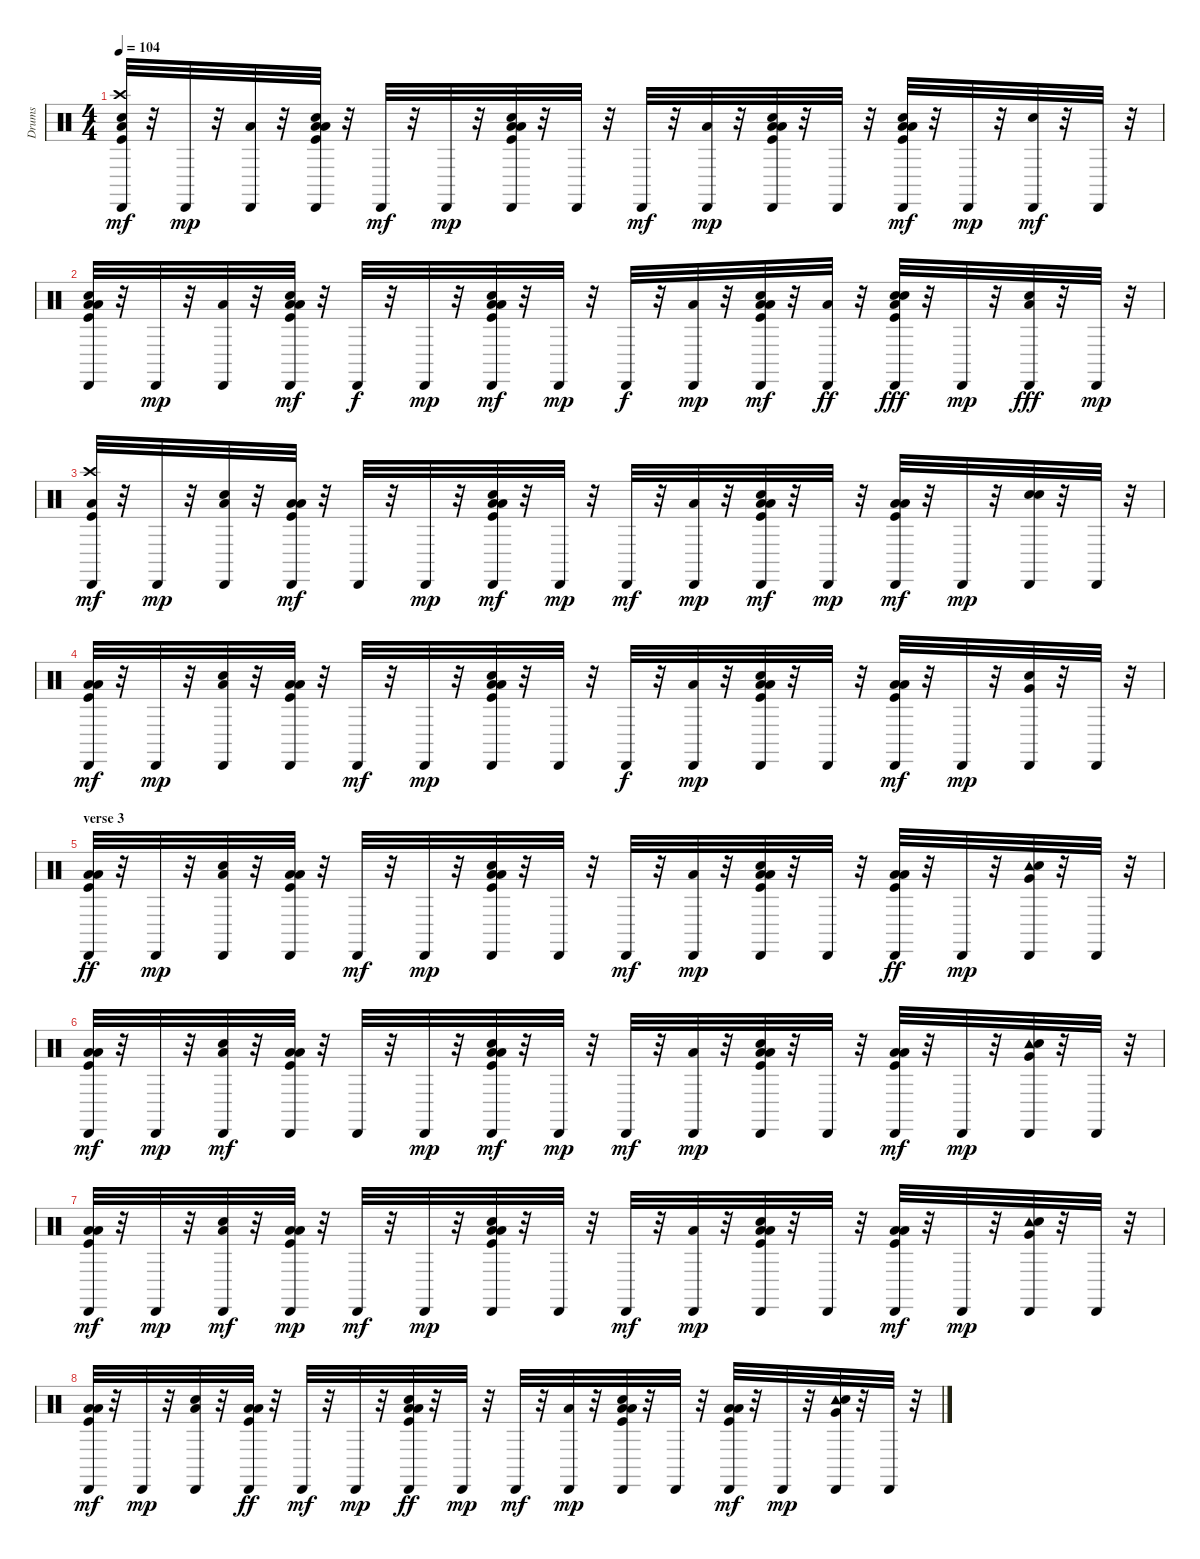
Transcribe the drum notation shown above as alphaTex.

\track ("Drums" "Drums") {instrument percussion}
\staff {score}
\articulation defaults
\ts (4 4)
\tempo 104
\clef neutral
\ks c
("Crash high (hit)" "Low Floor Tom (hit)" "Kick (hit)" "Hand Clap (hit)" "Cabasa (hit)").32{dy mf} r.32 "Cabasa (hit)".32{dy mp} r.32 ("Low Tom (hit)" "Cabasa (hit)").32 r.32 ("Low Tom (hit)" "Kick (hit)" "Cabasa (hit)" "Low Floor Tom (hit)" "Hand Clap (hit)").32 r.32 "Cabasa (hit)".32{dy mf} r.32 "Cabasa (hit)".32{dy mp} r.32 ("Low Tom (hit)" "Low Floor Tom (hit)" "Kick (hit)" "Hand Clap (hit)" "Cabasa (hit)").32 r.32 "Cabasa (hit)".32 r.32 "Cabasa (hit)".32{dy mf} r.32 ("Low Tom (hit)" "Cabasa (hit)").32{dy mp} r.32 ("Low Tom (hit)" "Low Floor Tom (hit)" "Kick (hit)" "Hand Clap (hit)" "Cabasa (hit)").32 r.32 "Cabasa (hit)".32 r.32 ("Low Tom (hit)" "Kick (hit)" "Hand Clap (hit)" "Low Floor Tom (hit)" "Cabasa (hit)").32{dy mf} r.32 "Cabasa (hit)".32{dy mp} r.32 ("Snare (hit) 2" "Cabasa (hit)").32{dy mf} r.32 "Cabasa (hit)".32 r.32 |
("Low Floor Tom (hit)" "Low Tom (hit)" "Kick (hit)" "Hand Clap (hit)" "Cabasa (hit)").32 r.32 "Cabasa (hit)".32{dy mp} r.32 ("Low Tom (hit)" "Cabasa (hit)").32 r.32 ("Low Tom (hit)" "Cabasa (hit)" "Low Floor Tom (hit)" "Kick (hit)" "Hand Clap (hit)").32{dy mf} r.32 "Cabasa (hit)".32{dy f} r.32 "Cabasa (hit)".32{dy mp} r.32 ("Low Tom (hit)" "Low Floor Tom (hit)" "Cabasa (hit)" "Kick (hit)" "Hand Clap (hit)").32{dy mf} r.32 "Cabasa (hit)".32{dy mp} r.32 "Cabasa (hit)".32{dy f} r.32 ("Cabasa (hit)" "Low Tom (hit)").32{dy mp} r.32 ("Cabasa (hit)" "Low Tom (hit)" "Low Floor Tom (hit)" "Kick (hit)" "Hand Clap (hit)").32{dy mf} r.32 ("Cabasa (hit)" "Low Tom (hit)").32{dy ff} r.32 ("Cabasa (hit)" "Kick (hit)" "Hand Clap (hit)" "Snare (hit) 2" "Low Floor Tom (hit)").32{dy fff} r.32 "Cabasa (hit)".32{dy mp} r.32 ("Cabasa (hit)" "Snare (hit) 2" "Low Floor Tom (hit)").32{dy fff} r.32 "Cabasa (hit)".32{dy mp} r.32 |
("Crash high (hit)" "Low Floor Tom (hit)" "Cabasa (hit)" "Kick (hit)").32{dy mf} r.32 "Cabasa (hit)".32{dy mp} r.32 ("Hand Clap (hit)" "Cabasa (hit)" "Low Tom (hit)").32 r.32 ("Cabasa (hit)" "Kick (hit)" "Low Floor Tom (hit)" "Low Tom (hit)").32{dy mf} r.32 "Cabasa (hit)".32 r.32 "Cabasa (hit)".32{dy mp} r.32 ("Cabasa (hit)" "Low Floor Tom (hit)" "Low Tom (hit)" "Kick (hit)" "Hand Clap (hit)").32{dy mf} r.32 "Cabasa (hit)".32{dy mp} r.32 "Cabasa (hit)".32{dy mf} r.32 ("Cabasa (hit)" "Low Tom (hit)").32{dy mp} r.32 ("Low Floor Tom (hit)" "Cabasa (hit)" "Low Tom (hit)" "Kick (hit)" "Hand Clap (hit)").32{dy mf} r.32 "Cabasa (hit)".32{dy mp} r.32 ("Low Floor Tom (hit)" "Low Tom (hit)" "Kick (hit)" "Cabasa (hit)").32{dy mf} r.32 "Cabasa (hit)".32{dy mp} r.32 ("Hand Clap (hit)" "Snare (hit) 2" "Cabasa (hit)").32 r.32 "Cabasa (hit)".32 r.32 |
("Low Tom (hit)" "Cabasa (hit)" "Low Floor Tom (hit)" "Kick (hit)").32{dy mf} r.32 "Cabasa (hit)".32{dy mp} r.32 ("Hand Clap (hit)" "Low Tom (hit)" "Cabasa (hit)").32 r.32 ("Low Tom (hit)" "Kick (hit)" "Low Floor Tom (hit)" "Cabasa (hit)").32 r.32 "Cabasa (hit)".32{dy mf} r.32 "Cabasa (hit)".32{dy mp} r.32 ("Hand Clap (hit)" "Low Tom (hit)" "Kick (hit)" "Low Floor Tom (hit)" "Cabasa (hit)").32 r.32 "Cabasa (hit)".32 r.32 "Cabasa (hit)".32{dy f} r.32 ("Low Tom (hit)" "Cabasa (hit)").32{dy mp} r.32 ("Low Tom (hit)" "Low Floor Tom (hit)" "Kick (hit)" "Hand Clap (hit)" "Cabasa (hit)").32 r.32 "Cabasa (hit)".32 r.32 ("Low Floor Tom (hit)" "Low Tom (hit)" "Kick (hit)" "Cabasa (hit)").32{dy mf} r.32 "Cabasa (hit)".32{dy mp} r.32 ("Very Low Tom (hit)" "Hand Clap (hit)" "Cabasa (hit)").32 r.32 "Cabasa (hit)".32 r.32 |
\section ("" "verse 3")
("Low Floor Tom (hit)" "Kick (hit)" "Cabasa (hit)" "Low Tom (hit)").32{dy ff} r.32 "Cabasa (hit)".32{dy mp} r.32 ("Low Tom (hit)" "Hand Clap (hit)" "Cabasa (hit)").32 r.32 ("Low Tom (hit)" "Kick (hit)" "Cabasa (hit)" "Low Floor Tom (hit)").32 r.32 "Cabasa (hit)".32{dy mf} r.32 "Cabasa (hit)".32{dy mp} r.32 ("Hand Clap (hit)" "Low Tom (hit)" "Low Floor Tom (hit)" "Kick (hit)" "Cabasa (hit)").32 r.32 "Cabasa (hit)".32 r.32 "Cabasa (hit)".32{dy mf} r.32 ("Low Tom (hit)" "Cabasa (hit)").32{dy mp} r.32 ("Low Tom (hit)" "Hand Clap (hit)" "Low Floor Tom (hit)" "Kick (hit)" "Cabasa (hit)").32 r.32 "Cabasa (hit)".32 r.32 ("Low Tom (hit)" "Kick (hit)" "Cabasa (hit)" "Low Floor Tom (hit)").32{dy ff} r.32 "Cabasa (hit)".32{dy mp} r.32 ("Tambourine (hit)" "Hand Clap (hit)" "Cabasa (hit)" "Very Low Tom (hit)").32 r.32 "Cabasa (hit)".32 r.32 |
("Low Floor Tom (hit)" "Cabasa (hit)" "Low Tom (hit)" "Kick (hit)").32{dy mf} r.32 "Cabasa (hit)".32{dy mp} r.32 ("Hand Clap (hit)" "Cabasa (hit)" "Low Tom (hit)").32{dy mf} r.32 ("Cabasa (hit)" "Low Tom (hit)" "Low Floor Tom (hit)" "Kick (hit)").32 r.32 "Cabasa (hit)".32 r.32 "Cabasa (hit)".32{dy mp} r.32 ("Hand Clap (hit)" "Cabasa (hit)" "Low Tom (hit)" "Low Floor Tom (hit)" "Kick (hit)").32{dy mf} r.32 "Cabasa (hit)".32{dy mp} r.32 "Cabasa (hit)".32{dy mf} r.32 ("Cabasa (hit)" "Low Tom (hit)").32{dy mp} r.32 ("Hand Clap (hit)" "Low Tom (hit)" "Low Floor Tom (hit)" "Kick (hit)" "Cabasa (hit)").32 r.32 "Cabasa (hit)".32 r.32 ("Kick (hit)" "Low Tom (hit)" "Cabasa (hit)" "Low Floor Tom (hit)").32{dy mf} r.32 "Cabasa (hit)".32{dy mp} r.32 ("Tambourine (hit)" "Hand Clap (hit)" "Very Low Tom (hit)" "Cabasa (hit)").32 r.32 "Cabasa (hit)".32 r.32 |
("Low Floor Tom (hit)" "Kick (hit)" "Cabasa (hit)" "Low Tom (hit)").32{dy mf} r.32 "Cabasa (hit)".32{dy mp} r.32 ("Cabasa (hit)" "Low Tom (hit)" "Hand Clap (hit)").32{dy mf} r.32 ("Kick (hit)" "Cabasa (hit)" "Low Floor Tom (hit)" "Low Tom (hit)").32{dy mp} r.32 "Cabasa (hit)".32{dy mf} r.32 "Cabasa (hit)".32{dy mp} r.32 ("Low Floor Tom (hit)" "Low Tom (hit)" "Kick (hit)" "Cabasa (hit)" "Hand Clap (hit)").32 r.32 "Cabasa (hit)".32 r.32 "Cabasa (hit)".32{dy mf} r.32 ("Cabasa (hit)" "Low Tom (hit)").32{dy mp} r.32 ("Low Floor Tom (hit)" "Low Tom (hit)" "Kick (hit)" "Hand Clap (hit)" "Cabasa (hit)").32 r.32 "Cabasa (hit)".32 r.32 ("Low Floor Tom (hit)" "Low Tom (hit)" "Kick (hit)" "Cabasa (hit)").32{dy mf} r.32 "Cabasa (hit)".32{dy mp} r.32 ("Very Low Tom (hit)" "Tambourine (hit)" "Hand Clap (hit)" "Cabasa (hit)").32 r.32 "Cabasa (hit)".32 r.32 |
("Low Tom (hit)" "Cabasa (hit)" "Low Floor Tom (hit)" "Kick (hit)").32{dy mf} r.32 "Cabasa (hit)".32{dy mp} r.32 ("Low Tom (hit)" "Hand Clap (hit)" "Cabasa (hit)").32 r.32 ("Low Tom (hit)" "Kick (hit)" "Cabasa (hit)" "Low Floor Tom (hit)").32{dy ff} r.32 "Cabasa (hit)".32{dy mf} r.32 "Cabasa (hit)".32{dy mp} r.32 ("Hand Clap (hit)" "Low Tom (hit)" "Kick (hit)" "Cabasa (hit)" "Low Floor Tom (hit)").32{dy ff} r.32 "Cabasa (hit)".32{dy mp} r.32 "Cabasa (hit)".32{dy mf} r.32 ("Low Tom (hit)" "Cabasa (hit)").32{dy mp} r.32 ("Low Tom (hit)" "Low Floor Tom (hit)" "Kick (hit)" "Hand Clap (hit)" "Cabasa (hit)").32 r.32 "Cabasa (hit)".32 r.32 ("Low Floor Tom (hit)" "Low Tom (hit)" "Kick (hit)" "Cabasa (hit)").32{dy mf} r.32 "Cabasa (hit)".32{dy mp} r.32 ("Tambourine (hit)" "Hand Clap (hit)" "Very Low Tom (hit)" "Cabasa (hit)").32 r.32 "Cabasa (hit)".32 r.32
